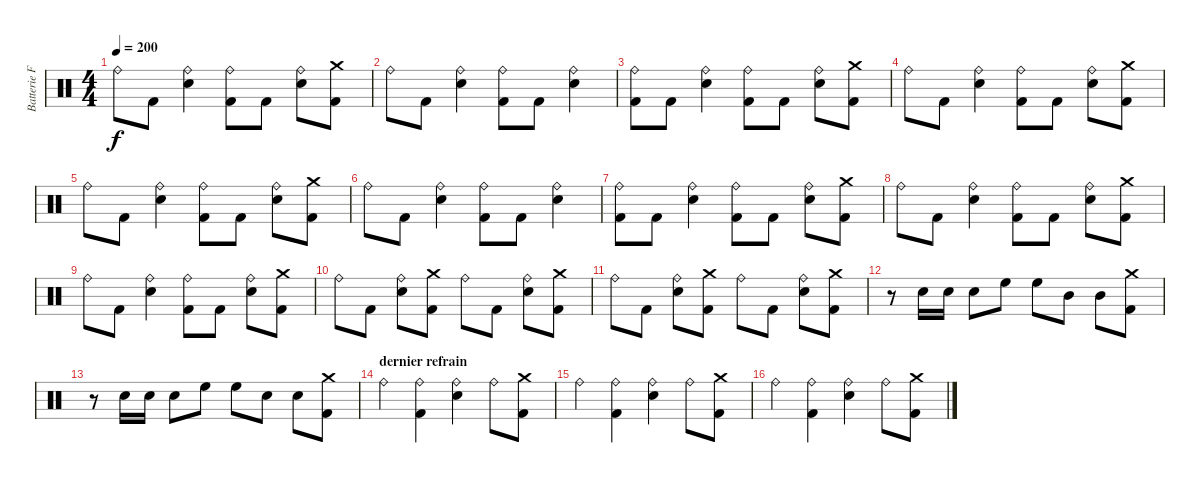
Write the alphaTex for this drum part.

\track ("Batterie Franck" "Batterie F") {instrument percussion}
\staff {score}
\articulation defaults
\ts (4 4)
\tempo 200
\clef neutral
\ks c "Ride (bell)".8{dy f} "Kick (hit) 2".8
("Ride (bell)" "Snare (hit) 2").4 ("Ride (bell)" "Kick (hit) 2").8 "Kick (hit) 2".8 ("Ride (bell)" "Snare (hit) 2").8 ("Crash medium (hit)" "Kick (hit) 2").8 |
"Ride (bell)".8 "Kick (hit) 2".8 ("Ride (bell)" "Snare (hit) 2").4 ("Ride (bell)" "Kick (hit) 2").8 "Kick (hit) 2".8 ("Ride (bell)" "Snare (hit) 2").4 |
("Ride (bell)" "Kick (hit) 2").8 "Kick (hit) 2".8 ("Ride (bell)" "Snare (hit) 2").4 ("Ride (bell)" "Kick (hit) 2").8 "Kick (hit) 2".8 ("Ride (bell)" "Snare (hit) 2").8 ("Crash medium (hit)" "Kick (hit) 2").8 |
"Ride (bell)".8 "Kick (hit) 2".8 ("Ride (bell)" "Snare (hit) 2").4 ("Ride (bell)" "Kick (hit) 2").8 "Kick (hit) 2".8 ("Ride (bell)" "Snare (hit) 2").8 ("Crash medium (hit)" "Kick (hit) 2").8 |
"Ride (bell)".8 "Kick (hit) 2".8 ("Ride (bell)" "Snare (hit) 2").4 ("Ride (bell)" "Kick (hit) 2").8 "Kick (hit) 2".8 ("Ride (bell)" "Snare (hit) 2").8 ("Crash medium (hit)" "Kick (hit) 2").8 |
"Ride (bell)".8 "Kick (hit) 2".8 ("Ride (bell)" "Snare (hit) 2").4 ("Ride (bell)" "Kick (hit) 2").8 "Kick (hit) 2".8 ("Ride (bell)" "Snare (hit) 2").4 |
("Ride (bell)" "Kick (hit) 2").8 "Kick (hit) 2".8 ("Ride (bell)" "Snare (hit) 2").4 ("Ride (bell)" "Kick (hit) 2").8 "Kick (hit) 2".8 ("Ride (bell)" "Snare (hit) 2").8 ("Crash medium (hit)" "Kick (hit) 2").8 |
"Ride (bell)".8 "Kick (hit) 2".8 ("Ride (bell)" "Snare (hit) 2").4 ("Ride (bell)" "Kick (hit) 2").8 "Kick (hit) 2".8 ("Ride (bell)" "Snare (hit) 2").8 ("Crash medium (hit)" "Kick (hit) 2").8 |
"Ride (bell)".8 "Kick (hit) 2".8 ("Ride (bell)" "Snare (hit) 2").4 ("Ride (bell)" "Kick (hit) 2").8 "Kick (hit) 2".8 ("Ride (bell)" "Snare (hit) 2").8 ("Crash medium (hit)" "Kick (hit) 2").8 |
"Ride (bell)".8 "Kick (hit) 2".8 ("Ride (bell)" "Snare (hit) 2").8 ("Crash medium (hit)" "Kick (hit) 2").8 "Ride (bell)".8 "Kick (hit) 2".8 ("Ride (bell)" "Snare (hit) 2").8 ("Crash medium (hit)" "Kick (hit) 2").8 |
"Ride (bell)".8 "Kick (hit) 2".8 ("Ride (bell)" "Snare (hit) 2").8 ("Crash medium (hit)" "Kick (hit) 2").8 "Ride (bell)".8 "Kick (hit) 2".8 ("Ride (bell)" "Snare (hit) 2").8 ("Crash medium (hit)" "Kick (hit) 2").8 |
r.8 "Snare (hit) 2".16 "Snare (hit) 2".16 "Snare (hit) 2".8 "High Floor Tom (hit)".8 "High Floor Tom (hit)".8 "Mid Tom (hit)".8 "Mid Tom (hit)".8 ("Crash medium (hit)" "Kick (hit) 2").8 |
r.8 "Snare (hit) 2".16 "Snare (hit) 2".16 "Snare (hit) 2".8 "High Floor Tom (hit)".8 "High Floor Tom (hit)".8 "Snare (hit) 2".8 "Snare (hit) 2".8 ("Crash medium (hit)" "Kick (hit) 2").8 |
\section ("" "dernier refrain")
"Ride (bell)".4 ("Ride (bell)" "Kick (hit) 2").4 ("Ride (bell)" "Snare (hit) 2").4 "Ride (bell)".8 ("Crash medium (hit)" "Kick (hit) 2").8 |
"Ride (bell)".4 ("Ride (bell)" "Kick (hit) 2").4 ("Ride (bell)" "Snare (hit) 2").4 "Ride (bell)".8 ("Crash medium (hit)" "Kick (hit) 2").8 |
"Ride (bell)".4 ("Ride (bell)" "Kick (hit) 2").4 ("Ride (bell)" "Snare (hit) 2").4 "Ride (bell)".8 ("Crash medium (hit)" "Kick (hit) 2").8
